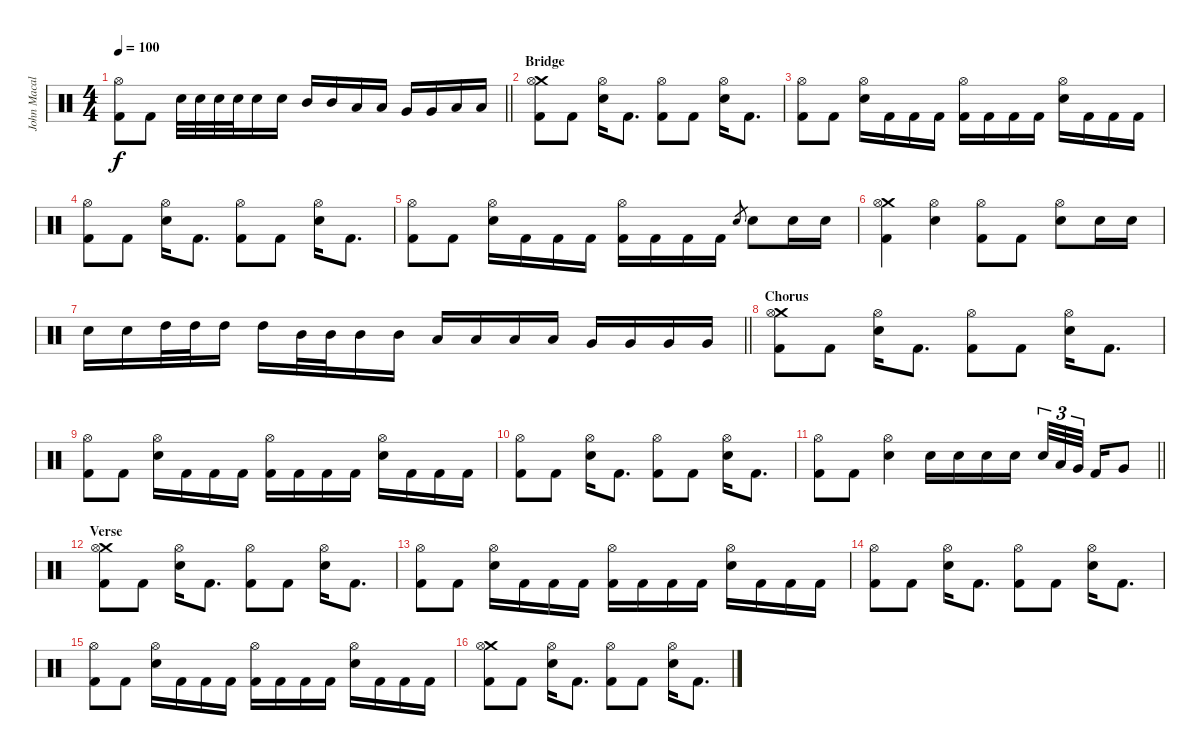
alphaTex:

\track ("John Macaluso" "John Macal") {instrument percussion}
\staff {score}
\articulation defaults
\ts (4 4)
\tempo 100
\clef neutral
\barLineRight lightlight
\ks c
("Hi-Hat (open)" "Kick (hit) 2").8{dy f} "Kick (hit) 2".8 "Snare (hit) 2".32 "Snare (hit) 2".32 "Snare (hit) 2".32 "Snare (hit) 2".32 "Snare (hit) 2".16 "Snare (hit) 2".16 "Mid Tom (hit)".16 "Mid Tom (hit)".16 "Low Tom (hit)".16 "Low Tom (hit)".16 "Very Low Tom (hit)".16 "Very Low Tom (hit)".16 "Low Floor Tom (hit)".16 "Low Floor Tom (hit)".16 |
\section ("" "Bridge")
("Crash medium (hit)" "Hi-Hat (open)" "Kick (hit) 2").8 "Kick (hit) 2".8 ("Hi-Hat (open)" "Snare (hit) 2").16 "Kick (hit) 2".8{d} ("Hi-Hat (open)" "Kick (hit) 2").8 "Kick (hit) 2".8 ("Hi-Hat (open)" "Snare (hit) 2").16 "Kick (hit) 2".8{d} |
("Hi-Hat (open)" "Kick (hit) 2").8 "Kick (hit) 2".8 ("Hi-Hat (open)" "Snare (hit) 2").16 "Kick (hit) 2".16 "Kick (hit) 2".16 "Kick (hit) 2".16 ("Hi-Hat (open)" "Kick (hit) 2").16 "Kick (hit) 2".16 "Kick (hit) 2".16 "Kick (hit) 2".16 ("Hi-Hat (open)" "Snare (hit) 2").16 "Kick (hit) 2".16 "Kick (hit) 2".16 "Kick (hit) 2".16 |
("Hi-Hat (open)" "Kick (hit) 2").8 "Kick (hit) 2".8 ("Hi-Hat (open)" "Snare (hit) 2").16 "Kick (hit) 2".8{d} ("Hi-Hat (open)" "Kick (hit) 2").8 "Kick (hit) 2".8 ("Hi-Hat (open)" "Snare (hit) 2").16 "Kick (hit) 2".8{d} |
("Hi-Hat (open)" "Kick (hit) 2").8 "Kick (hit) 2".8 ("Hi-Hat (open)" "Snare (hit) 2").16 "Kick (hit) 2".16 "Kick (hit) 2".16 "Kick (hit) 2".16 ("Hi-Hat (open)" "Kick (hit) 2").16 "Kick (hit) 2".16 "Kick (hit) 2".16 "Kick (hit) 2".16 "Snare (hit) 2".8{gr} "Snare (hit) 2".8 "Snare (hit) 2".16 "Snare (hit) 2".16 |
("Crash medium (hit)" "Hi-Hat (open)" "Kick (hit) 2").4 ("Hi-Hat (open)" "Snare (hit) 2").4 ("Hi-Hat (open)" "Kick (hit) 2").8 "Kick (hit) 2".8 ("Hi-Hat (open)" "Snare (hit) 2").8 "Snare (hit) 2".16 "Snare (hit) 2".16 |
\barLineRight lightlight "Snare (hit) 2".16 "Snare (hit) 2".16 "High Tom (hit)".32 "High Tom (hit)".32 "High Tom (hit)".16 "High Tom (hit)".16 "Mid Tom (hit)".32 "Mid Tom (hit)".32 "Mid Tom (hit)".16 "Mid Tom (hit)".16 "Low Tom (hit)".16 "Low Tom (hit)".16 "Low Tom (hit)".16 "Low Tom (hit)".16 "Very Low Tom (hit)".16 "Very Low Tom (hit)".16 "Very Low Tom (hit)".16 "Very Low Tom (hit)".16
|
\section ("" "Chorus")
("Crash medium (hit)" "Hi-Hat (open)" "Kick (hit) 2").8 "Kick (hit) 2".8 ("Hi-Hat (open)" "Snare (hit) 2").16 "Kick (hit) 2".8{d} ("Hi-Hat (open)" "Kick (hit) 2").8 "Kick (hit) 2".8 ("Hi-Hat (open)" "Snare (hit) 2").16 "Kick (hit) 2".8{d} |
("Hi-Hat (open)" "Kick (hit) 2").8 "Kick (hit) 2".8 ("Hi-Hat (open)" "Snare (hit) 2").16 "Kick (hit) 2".16 "Kick (hit) 2".16 "Kick (hit) 2".16 ("Hi-Hat (open)" "Kick (hit) 2").16 "Kick (hit) 2".16 "Kick (hit) 2".16 "Kick (hit) 2".16 ("Hi-Hat (open)" "Snare (hit) 2").16 "Kick (hit) 2".16 "Kick (hit) 2".16 "Kick (hit) 2".16 |
("Hi-Hat (open)" "Kick (hit) 2").8 "Kick (hit) 2".8 ("Hi-Hat (open)" "Snare (hit) 2").16 "Kick (hit) 2".8{d} ("Hi-Hat (open)" "Kick (hit) 2").8 "Kick (hit) 2".8 ("Hi-Hat (open)" "Snare (hit) 2").16 "Kick (hit) 2".8{d} |
\barLineRight lightlight
("Hi-Hat (open)" "Kick (hit) 2").8 "Kick (hit) 2".8 ("Hi-Hat (open)" "Snare (hit) 2").4 "Snare (hit) 2".16 "Snare (hit) 2".16 "Snare (hit) 2".16 "Snare (hit) 2".16 "Snare (hit) 2".32{tu (3 2)} "Low Tom (hit)".32{tu (3 2)} "Very Low Tom (hit)".32{tu (3 2) beam splitsecondary} "Kick (hit) 2".16 "Very Low Tom (hit)".8 |
\section ("" "Verse")
("Crash medium (hit)" "Hi-Hat (open)" "Kick (hit) 2").8 "Kick (hit) 2".8 ("Hi-Hat (open)" "Snare (hit) 2").16 "Kick (hit) 2".8{d} ("Hi-Hat (open)" "Kick (hit) 2").8 "Kick (hit) 2".8 ("Hi-Hat (open)" "Snare (hit) 2").16 "Kick (hit) 2".8{d} |
("Hi-Hat (open)" "Kick (hit) 2").8 "Kick (hit) 2".8 ("Hi-Hat (open)" "Snare (hit) 2").16 "Kick (hit) 2".16 "Kick (hit) 2".16 "Kick (hit) 2".16 ("Hi-Hat (open)" "Kick (hit) 2").16 "Kick (hit) 2".16 "Kick (hit) 2".16 "Kick (hit) 2".16 ("Hi-Hat (open)" "Snare (hit) 2").16 "Kick (hit) 2".16 "Kick (hit) 2".16 "Kick (hit) 2".16 |
("Hi-Hat (open)" "Kick (hit) 2").8 "Kick (hit) 2".8 ("Hi-Hat (open)" "Snare (hit) 2").16 "Kick (hit) 2".8{d} ("Hi-Hat (open)" "Kick (hit) 2").8 "Kick (hit) 2".8 ("Hi-Hat (open)" "Snare (hit) 2").16 "Kick (hit) 2".8{d} |
("Hi-Hat (open)" "Kick (hit) 2").8 "Kick (hit) 2".8 ("Hi-Hat (open)" "Snare (hit) 2").16 "Kick (hit) 2".16 "Kick (hit) 2".16 "Kick (hit) 2".16 ("Hi-Hat (open)" "Kick (hit) 2").16 "Kick (hit) 2".16 "Kick (hit) 2".16 "Kick (hit) 2".16 ("Hi-Hat (open)" "Snare (hit) 2").16 "Kick (hit) 2".16 "Kick (hit) 2".16 "Kick (hit) 2".16 |
("Crash medium (hit)" "Hi-Hat (open)" "Kick (hit) 2").8 "Kick (hit) 2".8 ("Hi-Hat (open)" "Snare (hit) 2").16 "Kick (hit) 2".8{d} ("Hi-Hat (open)" "Kick (hit) 2").8 "Kick (hit) 2".8 ("Hi-Hat (open)" "Snare (hit) 2").16 "Kick (hit) 2".8{d}
